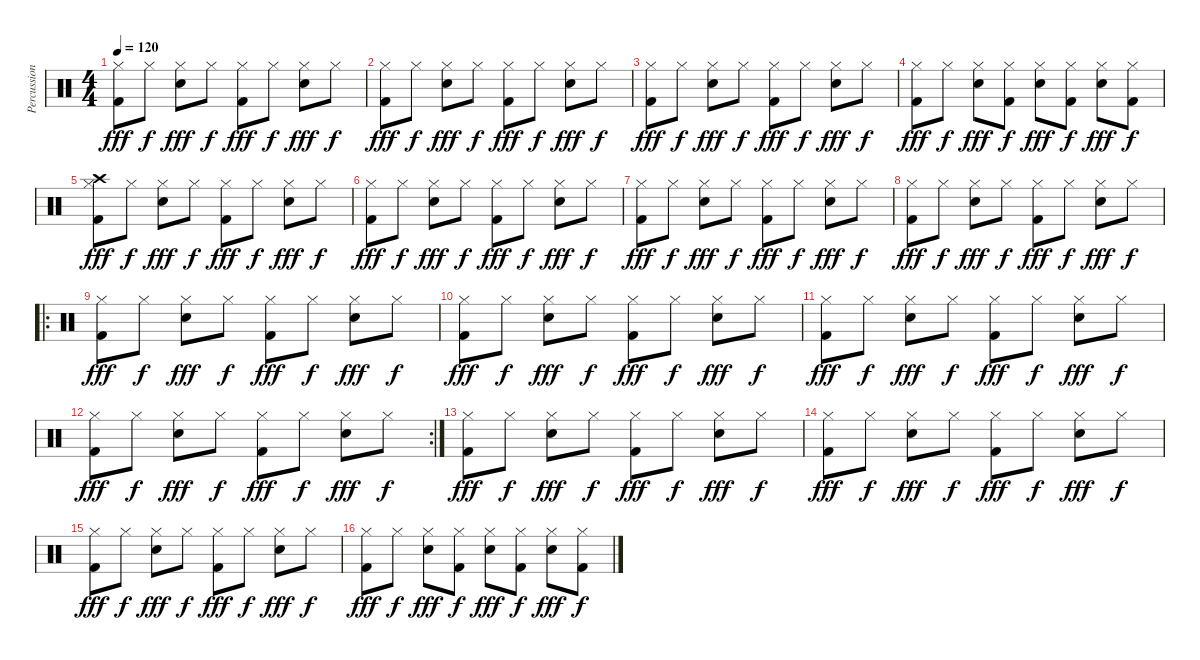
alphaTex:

\track ("Percussion" "Percussion") {instrument percussion}
\staff {score}
\articulation defaults
\ts (4 4)
\tempo 120
\clef neutral
\ks c
("Hi-Hat (closed)" "Kick (hit) 2").8{dy fff} "Hi-Hat (closed)".8{dy f} ("Hi-Hat (closed)" "Electric Snare (hit)").8{dy fff} "Hi-Hat (closed)".8{dy f} ("Hi-Hat (closed)" "Kick (hit) 2").8{dy fff} "Hi-Hat (closed)".8{dy f} ("Hi-Hat (closed)" "Electric Snare (hit)").8{dy fff} "Hi-Hat (closed)".8{dy f} |
("Hi-Hat (closed)" "Kick (hit) 2").8{dy fff} "Hi-Hat (closed)".8{dy f} ("Hi-Hat (closed)" "Electric Snare (hit)").8{dy fff} "Hi-Hat (closed)".8{dy f} ("Hi-Hat (closed)" "Kick (hit) 2").8{dy fff} "Hi-Hat (closed)".8{dy f} ("Hi-Hat (closed)" "Electric Snare (hit)").8{dy fff} "Hi-Hat (closed)".8{dy f} |
("Hi-Hat (closed)" "Kick (hit) 2").8{dy fff} "Hi-Hat (closed)".8{dy f} ("Hi-Hat (closed)" "Electric Snare (hit)").8{dy fff} "Hi-Hat (closed)".8{dy f} ("Hi-Hat (closed)" "Kick (hit) 2").8{dy fff} "Hi-Hat (closed)".8{dy f} ("Hi-Hat (closed)" "Electric Snare (hit)").8{dy fff} "Hi-Hat (closed)".8{dy f} |
("Hi-Hat (closed)" "Kick (hit) 2").8{dy fff} "Hi-Hat (closed)".8{dy f} ("Hi-Hat (closed)" "Electric Snare (hit)").8{dy fff} ("Hi-Hat (closed)" "Kick (hit) 2").8{dy f} ("Hi-Hat (closed)" "Electric Snare (hit)").8{dy fff} ("Hi-Hat (closed)" "Kick (hit) 2").8{dy f} ("Hi-Hat (closed)" "Electric Snare (hit)").8{dy fff} ("Hi-Hat (closed)" "Kick (hit) 2").8{dy f} |
("Hi-Hat (closed)" "Kick (hit) 2" "Crash high (hit)").8{dy fff} "Hi-Hat (closed)".8{dy f} ("Hi-Hat (closed)" "Electric Snare (hit)").8{dy fff} "Hi-Hat (closed)".8{dy f} ("Hi-Hat (closed)" "Kick (hit) 2").8{dy fff} "Hi-Hat (closed)".8{dy f} ("Hi-Hat (closed)" "Electric Snare (hit)").8{dy fff} "Hi-Hat (closed)".8{dy f} |
("Hi-Hat (closed)" "Kick (hit) 2").8{dy fff} "Hi-Hat (closed)".8{dy f} ("Hi-Hat (closed)" "Electric Snare (hit)").8{dy fff} "Hi-Hat (closed)".8{dy f} ("Hi-Hat (closed)" "Kick (hit) 2").8{dy fff} "Hi-Hat (closed)".8{dy f} ("Hi-Hat (closed)" "Electric Snare (hit)").8{dy fff} "Hi-Hat (closed)".8{dy f} |
("Hi-Hat (closed)" "Kick (hit) 2").8{dy fff} "Hi-Hat (closed)".8{dy f} ("Hi-Hat (closed)" "Electric Snare (hit)").8{dy fff} "Hi-Hat (closed)".8{dy f} ("Hi-Hat (closed)" "Kick (hit) 2").8{dy fff} "Hi-Hat (closed)".8{dy f} ("Hi-Hat (closed)" "Electric Snare (hit)").8{dy fff} "Hi-Hat (closed)".8{dy f} |
("Hi-Hat (closed)" "Kick (hit) 2").8{dy fff} "Hi-Hat (closed)".8{dy f} ("Hi-Hat (closed)" "Electric Snare (hit)").8{dy fff} "Hi-Hat (closed)".8{dy f} ("Hi-Hat (closed)" "Kick (hit) 2").8{dy fff} "Hi-Hat (closed)".8{dy f} ("Hi-Hat (closed)" "Electric Snare (hit)").8{dy fff} "Hi-Hat (closed)".8{dy f} |
\ro
("Hi-Hat (closed)" "Kick (hit) 2").8{dy fff} "Hi-Hat (closed)".8{dy f} ("Hi-Hat (closed)" "Electric Snare (hit)").8{dy fff} "Hi-Hat (closed)".8{dy f} ("Hi-Hat (closed)" "Kick (hit) 2").8{dy fff} "Hi-Hat (closed)".8{dy f} ("Hi-Hat (closed)" "Electric Snare (hit)").8{dy fff} "Hi-Hat (closed)".8{dy f} |
("Hi-Hat (closed)" "Kick (hit) 2").8{dy fff} "Hi-Hat (closed)".8{dy f} ("Hi-Hat (closed)" "Electric Snare (hit)").8{dy fff} "Hi-Hat (closed)".8{dy f} ("Hi-Hat (closed)" "Kick (hit) 2").8{dy fff} "Hi-Hat (closed)".8{dy f} ("Hi-Hat (closed)" "Electric Snare (hit)").8{dy fff} "Hi-Hat (closed)".8{dy f} |
("Hi-Hat (closed)" "Kick (hit) 2").8{dy fff} "Hi-Hat (closed)".8{dy f} ("Hi-Hat (closed)" "Electric Snare (hit)").8{dy fff} "Hi-Hat (closed)".8{dy f} ("Hi-Hat (closed)" "Kick (hit) 2").8{dy fff} "Hi-Hat (closed)".8{dy f} ("Hi-Hat (closed)" "Electric Snare (hit)").8{dy fff} "Hi-Hat (closed)".8{dy f} |
\rc 2
("Hi-Hat (closed)" "Kick (hit) 2").8{dy fff} "Hi-Hat (closed)".8{dy f} ("Hi-Hat (closed)" "Electric Snare (hit)").8{dy fff} "Hi-Hat (closed)".8{dy f} ("Hi-Hat (closed)" "Kick (hit) 2").8{dy fff} "Hi-Hat (closed)".8{dy f} ("Hi-Hat (closed)" "Electric Snare (hit)").8{dy fff} "Hi-Hat (closed)".8{dy f} |
("Hi-Hat (closed)" "Kick (hit) 2").8{dy fff} "Hi-Hat (closed)".8{dy f} ("Hi-Hat (closed)" "Electric Snare (hit)").8{dy fff} "Hi-Hat (closed)".8{dy f} ("Hi-Hat (closed)" "Kick (hit) 2").8{dy fff} "Hi-Hat (closed)".8{dy f} ("Hi-Hat (closed)" "Electric Snare (hit)").8{dy fff} "Hi-Hat (closed)".8{dy f} |
("Hi-Hat (closed)" "Kick (hit) 2").8{dy fff} "Hi-Hat (closed)".8{dy f} ("Hi-Hat (closed)" "Electric Snare (hit)").8{dy fff} "Hi-Hat (closed)".8{dy f} ("Hi-Hat (closed)" "Kick (hit) 2").8{dy fff} "Hi-Hat (closed)".8{dy f} ("Hi-Hat (closed)" "Electric Snare (hit)").8{dy fff} "Hi-Hat (closed)".8{dy f} |
("Hi-Hat (closed)" "Kick (hit) 2").8{dy fff} "Hi-Hat (closed)".8{dy f} ("Hi-Hat (closed)" "Electric Snare (hit)").8{dy fff} "Hi-Hat (closed)".8{dy f} ("Hi-Hat (closed)" "Kick (hit) 2").8{dy fff} "Hi-Hat (closed)".8{dy f} ("Hi-Hat (closed)" "Electric Snare (hit)").8{dy fff} "Hi-Hat (closed)".8{dy f} |
("Hi-Hat (closed)" "Kick (hit) 2").8{dy fff} "Hi-Hat (closed)".8{dy f} ("Hi-Hat (closed)" "Electric Snare (hit)").8{dy fff} ("Hi-Hat (closed)" "Kick (hit) 2").8{dy f} ("Hi-Hat (closed)" "Electric Snare (hit)").8{dy fff} ("Hi-Hat (closed)" "Kick (hit) 2").8{dy f} ("Hi-Hat (closed)" "Electric Snare (hit)").8{dy fff} ("Hi-Hat (closed)" "Kick (hit) 2").8{dy f}
